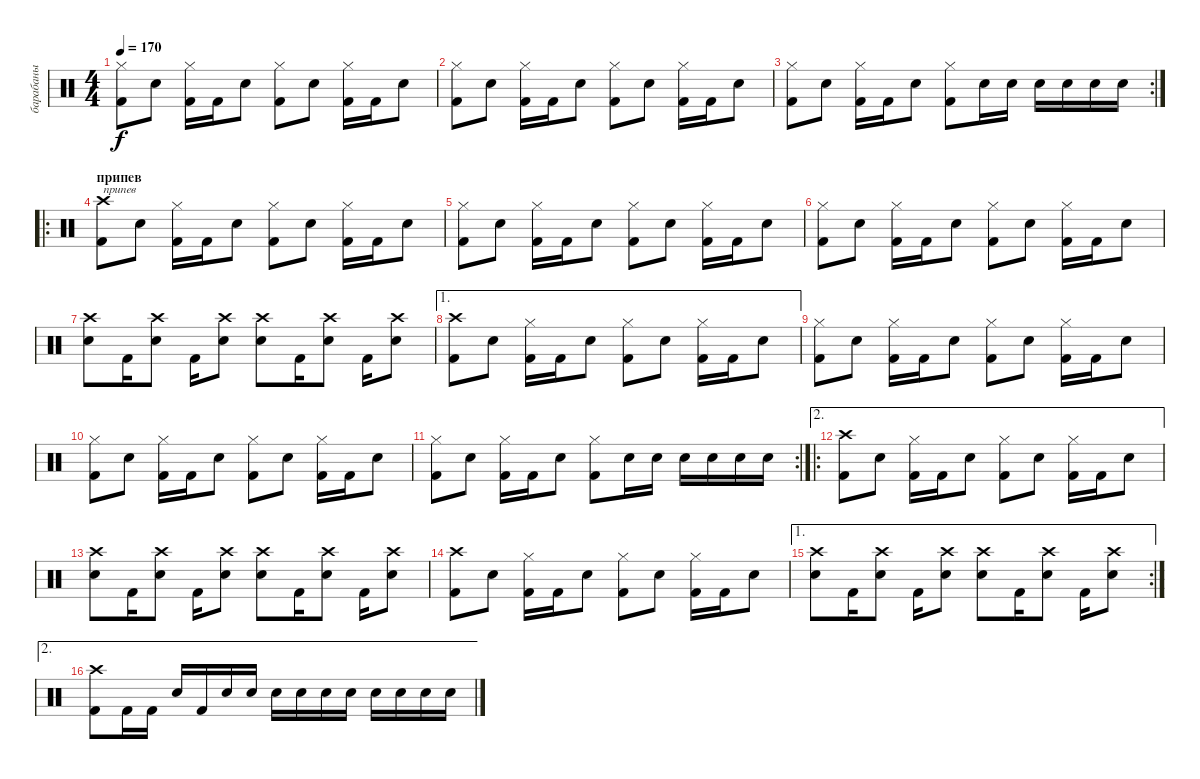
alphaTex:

\track ("барабаны" "барабаны") {instrument percussion}
\staff {score}
\articulation defaults
\ts (4 4)
\tempo 170
\clef neutral
\ks c
("Hi-Hat (closed)" "Kick (hit) 2").8{dy f} "Snare (hit) 2".8 ("Hi-Hat (closed)" "Kick (hit) 2").16 "Kick (hit) 2".16 "Snare (hit) 2".8 ("Hi-Hat (closed)" "Kick (hit) 2").8 "Snare (hit) 2".8 ("Hi-Hat (closed)" "Kick (hit) 2").16 "Kick (hit) 2".16 "Snare (hit) 2".8 |
("Hi-Hat (closed)" "Kick (hit) 2").8 "Snare (hit) 2".8 ("Hi-Hat (closed)" "Kick (hit) 2").16 "Kick (hit) 2".16 "Snare (hit) 2".8 ("Hi-Hat (closed)" "Kick (hit) 2").8 "Snare (hit) 2".8 ("Hi-Hat (closed)" "Kick (hit) 2").16 "Kick (hit) 2".16 "Snare (hit) 2".8 |
\rc 2
("Hi-Hat (closed)" "Kick (hit) 2").8 "Snare (hit) 2".8 ("Hi-Hat (closed)" "Kick (hit) 2").16 "Kick (hit) 2".16 "Snare (hit) 2".8 ("Hi-Hat (closed)" "Kick (hit) 2").8 "Snare (hit) 2".16 "Snare (hit) 2".16 "Snare (hit) 2".16 "Snare (hit) 2".16 "Snare (hit) 2".16 "Snare (hit) 2".16 |
\ro
\section ("" "припев")
("Crash high (hit)" "Kick (hit) 2").8{txt "припев"} "Snare (hit) 2".8 ("Hi-Hat (closed)" "Kick (hit) 2").16 "Kick (hit) 2".16 "Snare (hit) 2".8 ("Hi-Hat (closed)" "Kick (hit) 2").8 "Snare (hit) 2".8 ("Hi-Hat (closed)" "Kick (hit) 2").16 "Kick (hit) 2".16 "Snare (hit) 2".8 |
("Hi-Hat (closed)" "Kick (hit) 2").8 "Snare (hit) 2".8 ("Hi-Hat (closed)" "Kick (hit) 2").16 "Kick (hit) 2".16 "Snare (hit) 2".8 ("Hi-Hat (closed)" "Kick (hit) 2").8 "Snare (hit) 2".8 ("Hi-Hat (closed)" "Kick (hit) 2").16 "Kick (hit) 2".16 "Snare (hit) 2".8 |
("Hi-Hat (closed)" "Kick (hit) 2").8 "Snare (hit) 2".8 ("Hi-Hat (closed)" "Kick (hit) 2").16 "Kick (hit) 2".16 "Snare (hit) 2".8 ("Hi-Hat (closed)" "Kick (hit) 2").8 "Snare (hit) 2".8 ("Hi-Hat (closed)" "Kick (hit) 2").16 "Kick (hit) 2".16 "Snare (hit) 2".8 |
("Crash high (hit)" "Snare (hit) 2").8 "Kick (hit) 2".16 ("Crash high (hit)" "Snare (hit) 2").8 "Kick (hit) 2".16 ("Crash high (hit)" "Snare (hit) 2").8 ("Crash high (hit)" "Snare (hit) 2").8 "Kick (hit) 2".16 ("Crash high (hit)" "Snare (hit) 2").8 "Kick (hit) 2".16 ("Crash high (hit)" "Snare (hit) 2").8 |
\ae 1
("Crash high (hit)" "Kick (hit) 2").8 "Snare (hit) 2".8 ("Hi-Hat (closed)" "Kick (hit) 2").16 "Kick (hit) 2".16 "Snare (hit) 2".8 ("Hi-Hat (closed)" "Kick (hit) 2").8 "Snare (hit) 2".8 ("Hi-Hat (closed)" "Kick (hit) 2").16 "Kick (hit) 2".16 "Snare (hit) 2".8 |
("Hi-Hat (closed)" "Kick (hit) 2").8 "Snare (hit) 2".8 ("Hi-Hat (closed)" "Kick (hit) 2").16 "Kick (hit) 2".16 "Snare (hit) 2".8 ("Hi-Hat (closed)" "Kick (hit) 2").8 "Snare (hit) 2".8 ("Hi-Hat (closed)" "Kick (hit) 2").16 "Kick (hit) 2".16 "Snare (hit) 2".8 |
("Hi-Hat (closed)" "Kick (hit) 2").8 "Snare (hit) 2".8 ("Hi-Hat (closed)" "Kick (hit) 2").16 "Kick (hit) 2".16 "Snare (hit) 2".8 ("Hi-Hat (closed)" "Kick (hit) 2").8 "Snare (hit) 2".8 ("Hi-Hat (closed)" "Kick (hit) 2").16 "Kick (hit) 2".16 "Snare (hit) 2".8 |
\rc 2
("Hi-Hat (closed)" "Kick (hit) 2").8 "Snare (hit) 2".8 ("Hi-Hat (closed)" "Kick (hit) 2").16 "Kick (hit) 2".16 "Snare (hit) 2".8 ("Hi-Hat (closed)" "Kick (hit) 2").8 "Snare (hit) 2".16 "Snare (hit) 2".16 "Snare (hit) 2".16 "Snare (hit) 2".16 "Snare (hit) 2".16 "Snare (hit) 2".16 |
\ae 2
\ro
("Crash high (hit)" "Kick (hit) 2").8 "Snare (hit) 2".8 ("Hi-Hat (closed)" "Kick (hit) 2").16 "Kick (hit) 2".16 "Snare (hit) 2".8 ("Hi-Hat (closed)" "Kick (hit) 2").8 "Snare (hit) 2".8 ("Hi-Hat (closed)" "Kick (hit) 2").16 "Kick (hit) 2".16 "Snare (hit) 2".8 |
("Crash high (hit)" "Snare (hit) 2").8 "Kick (hit) 2".16 ("Crash high (hit)" "Snare (hit) 2").8 "Kick (hit) 2".16 ("Crash high (hit)" "Snare (hit) 2").8 ("Crash high (hit)" "Snare (hit) 2").8 "Kick (hit) 2".16 ("Crash high (hit)" "Snare (hit) 2").8 "Kick (hit) 2".16 ("Crash high (hit)" "Snare (hit) 2").8 |
("Crash high (hit)" "Kick (hit) 2").8 "Snare (hit) 2".8 ("Hi-Hat (closed)" "Kick (hit) 2").16 "Kick (hit) 2".16 "Snare (hit) 2".8 ("Hi-Hat (closed)" "Kick (hit) 2").8 "Snare (hit) 2".8 ("Hi-Hat (closed)" "Kick (hit) 2").16 "Kick (hit) 2".16 "Snare (hit) 2".8 |
\ae 1
\rc 2
("Crash high (hit)" "Snare (hit) 2").8 "Kick (hit) 2".16 ("Crash high (hit)" "Snare (hit) 2").8 "Kick (hit) 2".16 ("Crash high (hit)" "Snare (hit) 2").8 ("Crash high (hit)" "Snare (hit) 2").8 "Kick (hit) 2".16 ("Crash high (hit)" "Snare (hit) 2").8 "Kick (hit) 2".16 ("Crash high (hit)" "Snare (hit) 2").8 |
\ae 2
("Crash high (hit)" "Kick (hit) 2").8 "Kick (hit) 2".16 "Kick (hit) 2".16 "Snare (hit) 2".16 "Kick (hit) 2".16 "Snare (hit) 2".16 "Snare (hit) 2".16 "Snare (hit) 2".16 "Snare (hit) 2".16 "Snare (hit) 2".16 "Snare (hit) 2".16 "Snare (hit) 2".16 "Snare (hit) 2".16 "Snare (hit) 2".16 "Snare (hit) 2".16
